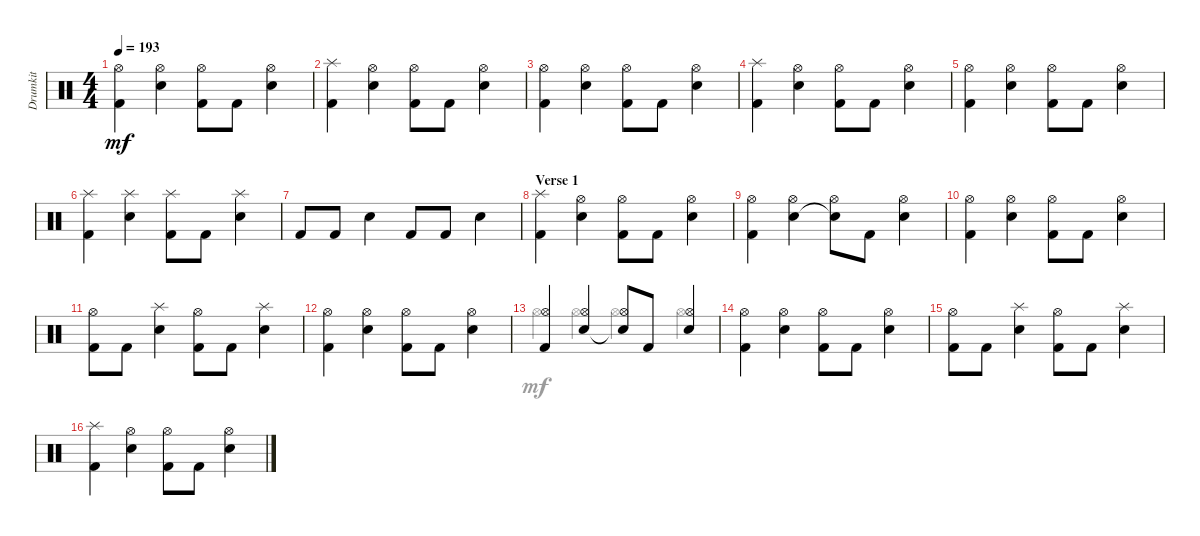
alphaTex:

\track ("Drumkit" "Drumkit") {instrument percussion}
\staff {score}
\articulation defaults
\voice
\ts (4 4)
\tempo 193
\clef neutral
\ks c
("Kick (hit) 2" "Hi-Hat (open)").4{dy mf} ("Snare (hit) 2" "Hi-Hat (open)").4 ("Kick (hit) 2" "Hi-Hat (open)").8 "Kick (hit) 2".8 ("Snare (hit) 2" "Hi-Hat (open)").4 |
("Kick (hit) 2" "Splash (hit)").4 ("Snare (hit) 2" "Hi-Hat (open)").4 ("Kick (hit) 2" "Hi-Hat (open)").8 "Kick (hit) 2".8 ("Snare (hit) 2" "Hi-Hat (open)").4 |
("Kick (hit) 2" "Hi-Hat (open)").4 ("Snare (hit) 2" "Hi-Hat (open)").4 ("Kick (hit) 2" "Hi-Hat (open)").8 "Kick (hit) 2".8 ("Snare (hit) 2" "Hi-Hat (open)").4 |
("Kick (hit) 2" "Splash (hit)").4 ("Snare (hit) 2" "Hi-Hat (open)").4 ("Kick (hit) 2" "Hi-Hat (open)").8 "Kick (hit) 2".8 ("Snare (hit) 2" "Hi-Hat (open)").4 |
("Kick (hit) 2" "Hi-Hat (open)").4 ("Snare (hit) 2" "Hi-Hat (open)").4 ("Kick (hit) 2" "Hi-Hat (open)").8 "Kick (hit) 2".8 ("Snare (hit) 2" "Hi-Hat (open)").4 |
("Kick (hit) 2" "Splash (hit)").4 ("Snare (hit) 2" "Splash (hit)").4 ("Kick (hit) 2" "Splash (hit)").8 "Kick (hit) 2".8 ("Snare (hit) 2" "Splash (hit)").4 |
"Kick (hit) 2".8 "Kick (hit) 2".8 "Snare (hit) 2".4 "Kick (hit) 2".8 "Kick (hit) 2".8 "Snare (hit) 2".4 |
\section ("" "Verse 1")
("Kick (hit) 2" "Splash (hit)").4 ("Snare (hit) 2" "Hi-Hat (open)").4 ("Kick (hit) 2" "Hi-Hat (open)").8 "Kick (hit) 2".8 ("Snare (hit) 2" "Hi-Hat (open)").4 |
("Kick (hit) 2" "Hi-Hat (open)").4 ("Snare (hit) 2" "Hi-Hat (open)").4 ("Snare (hit) 2"{t} "Hi-Hat (open)").8 "Kick (hit) 2".8 ("Snare (hit) 2" "Hi-Hat (open)").4 |
("Kick (hit) 2" "Hi-Hat (open)").4 ("Snare (hit) 2" "Hi-Hat (open)").4 ("Kick (hit) 2" "Hi-Hat (open)").8 "Kick (hit) 2".8 ("Snare (hit) 2" "Hi-Hat (open)").4 |
("Kick (hit) 2" "Hi-Hat (open)").8 "Kick (hit) 2".8 ("Snare (hit) 2" "Splash (hit)").4 ("Kick (hit) 2" "Hi-Hat (open)").8 "Kick (hit) 2".8 ("Snare (hit) 2" "Splash (hit)").4 |
("Kick (hit) 2" "Hi-Hat (open)").4 ("Snare (hit) 2" "Hi-Hat (open)").4 ("Kick (hit) 2" "Hi-Hat (open)").8 "Kick (hit) 2".8 ("Snare (hit) 2" "Hi-Hat (open)").4 |
("Kick (hit) 2" "Hi-Hat (open)").4 ("Snare (hit) 2" "Hi-Hat (open)").4 ("Snare (hit) 2"{t} "Hi-Hat (open)").8 "Kick (hit) 2".8 ("Snare (hit) 2" "Hi-Hat (open)").4 |
("Kick (hit) 2" "Hi-Hat (open)").4 ("Snare (hit) 2" "Hi-Hat (open)").4 ("Kick (hit) 2" "Hi-Hat (open)").8 "Kick (hit) 2".8 ("Snare (hit) 2" "Hi-Hat (open)").4 |
("Kick (hit) 2" "Hi-Hat (open)").8 "Kick (hit) 2".8 ("Snare (hit) 2" "Splash (hit)").4 ("Kick (hit) 2" "Hi-Hat (open)").8 "Kick (hit) 2".8 ("Snare (hit) 2" "Splash (hit)").4 |
("Kick (hit) 2" "Splash (hit)").4 ("Snare (hit) 2" "Hi-Hat (open)").4 ("Kick (hit) 2" "Hi-Hat (open)").8 "Kick (hit) 2".8 ("Snare (hit) 2" "Hi-Hat (open)").4
\voice
\clef neutral
\ottava regular
\simile none
\ks c
|
|
|
|
|
|
|
|
|
|
|
|
"Hi-Hat (open)".4 "Hi-Hat (open)".4 "Hi-Hat (open)".4 "Hi-Hat (open)".4 |
|
|
